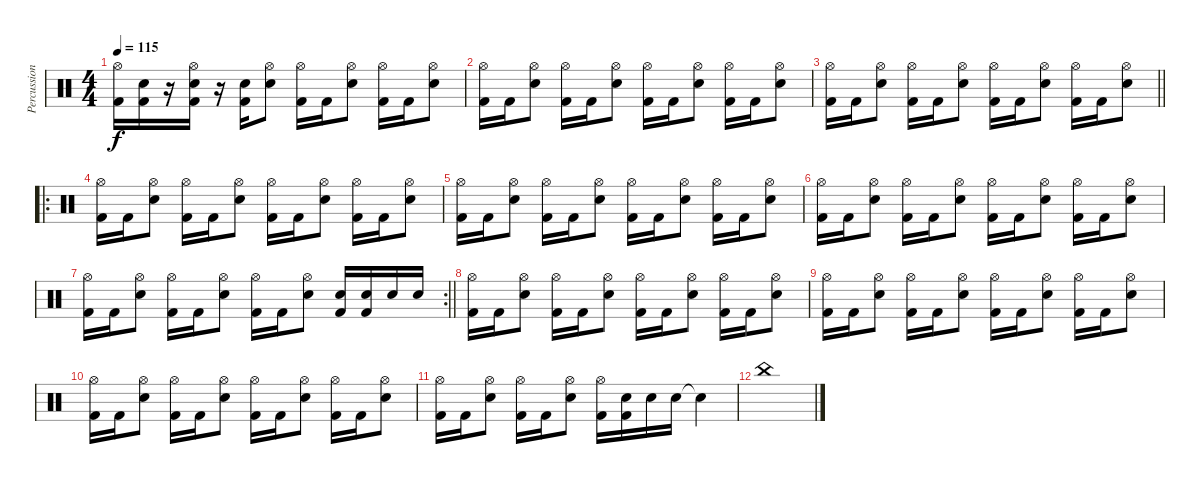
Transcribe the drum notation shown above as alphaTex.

\track ("Percussion" "Percussion") {instrument percussion}
\staff {score}
\articulation defaults
\ts (4 4)
\tempo 115
\clef neutral
\ks c
("Hi-Hat (open)" "Kick (hit) 2").16{dy f} ("Snare (hit) 2" "Kick (hit) 2").16 r.16 ("Hi-Hat (open)" "Snare (hit) 2" "Kick (hit) 2").16 r.16 ("Snare (hit) 2" "Kick (hit) 2").16 ("Hi-Hat (open)" "Snare (hit) 2").8 ("Hi-Hat (open)" "Kick (hit) 2").16 "Kick (hit) 2".16 ("Hi-Hat (open)" "Snare (hit) 2").8 ("Hi-Hat (open)" "Kick (hit) 2").16 "Kick (hit) 2".16 ("Hi-Hat (open)" "Snare (hit) 2").8 |
("Hi-Hat (open)" "Kick (hit) 2").16 "Kick (hit) 2".16 ("Hi-Hat (open)" "Snare (hit) 2").8 ("Hi-Hat (open)" "Kick (hit) 2").16 "Kick (hit) 2".16 ("Hi-Hat (open)" "Snare (hit) 2").8 ("Hi-Hat (open)" "Kick (hit) 2").16 "Kick (hit) 2".16 ("Hi-Hat (open)" "Snare (hit) 2").8 ("Hi-Hat (open)" "Kick (hit) 2").16 "Kick (hit) 2".16 ("Hi-Hat (open)" "Snare (hit) 2").8 |
\barLineRight lightlight
("Hi-Hat (open)" "Kick (hit) 2").16 "Kick (hit) 2".16 ("Hi-Hat (open)" "Snare (hit) 2").8 ("Hi-Hat (open)" "Kick (hit) 2").16 "Kick (hit) 2".16 ("Hi-Hat (open)" "Snare (hit) 2").8 ("Hi-Hat (open)" "Kick (hit) 2").16 "Kick (hit) 2".16 ("Hi-Hat (open)" "Snare (hit) 2").8 ("Hi-Hat (open)" "Kick (hit) 2").16 "Kick (hit) 2".16 ("Hi-Hat (open)" "Snare (hit) 2").8 |
\ro
("Hi-Hat (open)" "Kick (hit) 2").16 "Kick (hit) 2".16 ("Hi-Hat (open)" "Snare (hit) 2").8 ("Hi-Hat (open)" "Kick (hit) 2").16 "Kick (hit) 2".16 ("Hi-Hat (open)" "Snare (hit) 2").8 ("Hi-Hat (open)" "Kick (hit) 2").16 "Kick (hit) 2".16 ("Hi-Hat (open)" "Snare (hit) 2").8 ("Hi-Hat (open)" "Kick (hit) 2").16 "Kick (hit) 2".16 ("Hi-Hat (open)" "Snare (hit) 2").8 |
("Hi-Hat (open)" "Kick (hit) 2").16 "Kick (hit) 2".16 ("Hi-Hat (open)" "Snare (hit) 2").8 ("Hi-Hat (open)" "Kick (hit) 2").16 "Kick (hit) 2".16 ("Hi-Hat (open)" "Snare (hit) 2").8 ("Hi-Hat (open)" "Kick (hit) 2").16 "Kick (hit) 2".16 ("Hi-Hat (open)" "Snare (hit) 2").8 ("Hi-Hat (open)" "Kick (hit) 2").16 "Kick (hit) 2".16 ("Hi-Hat (open)" "Snare (hit) 2").8 |
("Hi-Hat (open)" "Kick (hit) 2").16 "Kick (hit) 2".16 ("Hi-Hat (open)" "Snare (hit) 2").8 ("Hi-Hat (open)" "Kick (hit) 2").16 "Kick (hit) 2".16 ("Hi-Hat (open)" "Snare (hit) 2").8 ("Hi-Hat (open)" "Kick (hit) 2").16 "Kick (hit) 2".16 ("Hi-Hat (open)" "Snare (hit) 2").8 ("Hi-Hat (open)" "Kick (hit) 2").16 "Kick (hit) 2".16 ("Hi-Hat (open)" "Snare (hit) 2").8 |
\rc 2
\barLineRight lightlight
("Hi-Hat (open)" "Kick (hit) 2").16 "Kick (hit) 2".16 ("Hi-Hat (open)" "Snare (hit) 2").8 ("Hi-Hat (open)" "Kick (hit) 2").16 "Kick (hit) 2".16 ("Hi-Hat (open)" "Snare (hit) 2").8 ("Hi-Hat (open)" "Kick (hit) 2").16 "Kick (hit) 2".16 ("Hi-Hat (open)" "Snare (hit) 2").8 ("Snare (hit) 2" "Kick (hit) 2").16 ("Snare (hit) 2" "Kick (hit) 2").16 "Snare (hit) 2".16 "Snare (hit) 2".16 |
("Hi-Hat (open)" "Kick (hit) 2").16 "Kick (hit) 2".16 ("Hi-Hat (open)" "Snare (hit) 2").8 ("Hi-Hat (open)" "Kick (hit) 2").16 "Kick (hit) 2".16 ("Hi-Hat (open)" "Snare (hit) 2").8 ("Hi-Hat (open)" "Kick (hit) 2").16 "Kick (hit) 2".16 ("Hi-Hat (open)" "Snare (hit) 2").8 ("Hi-Hat (open)" "Kick (hit) 2").16 "Kick (hit) 2".16 ("Hi-Hat (open)" "Snare (hit) 2").8 |
("Hi-Hat (open)" "Kick (hit) 2").16 "Kick (hit) 2".16 ("Hi-Hat (open)" "Snare (hit) 2").8 ("Hi-Hat (open)" "Kick (hit) 2").16 "Kick (hit) 2".16 ("Hi-Hat (open)" "Snare (hit) 2").8 ("Hi-Hat (open)" "Kick (hit) 2").16 "Kick (hit) 2".16 ("Hi-Hat (open)" "Snare (hit) 2").8 ("Hi-Hat (open)" "Kick (hit) 2").16 "Kick (hit) 2".16 ("Hi-Hat (open)" "Snare (hit) 2").8 |
("Hi-Hat (open)" "Kick (hit) 2").16 "Kick (hit) 2".16 ("Hi-Hat (open)" "Snare (hit) 2").8 ("Hi-Hat (open)" "Kick (hit) 2").16 "Kick (hit) 2".16 ("Hi-Hat (open)" "Snare (hit) 2").8 ("Hi-Hat (open)" "Kick (hit) 2").16 "Kick (hit) 2".16 ("Hi-Hat (open)" "Snare (hit) 2").8 ("Hi-Hat (open)" "Kick (hit) 2").16 "Kick (hit) 2".16 ("Hi-Hat (open)" "Snare (hit) 2").8 |
("Hi-Hat (open)" "Kick (hit) 2").16 "Kick (hit) 2".16 ("Hi-Hat (open)" "Snare (hit) 2").8 ("Hi-Hat (open)" "Kick (hit) 2").16 "Kick (hit) 2".16 ("Hi-Hat (open)" "Snare (hit) 2").8 ("Hi-Hat (open)" "Kick (hit) 2").16 ("Snare (hit) 2" "Kick (hit) 2").16 "Snare (hit) 2".16 "Snare (hit) 2".16 "Snare (hit) 2"{t}.4 |
"China (hit)".1
